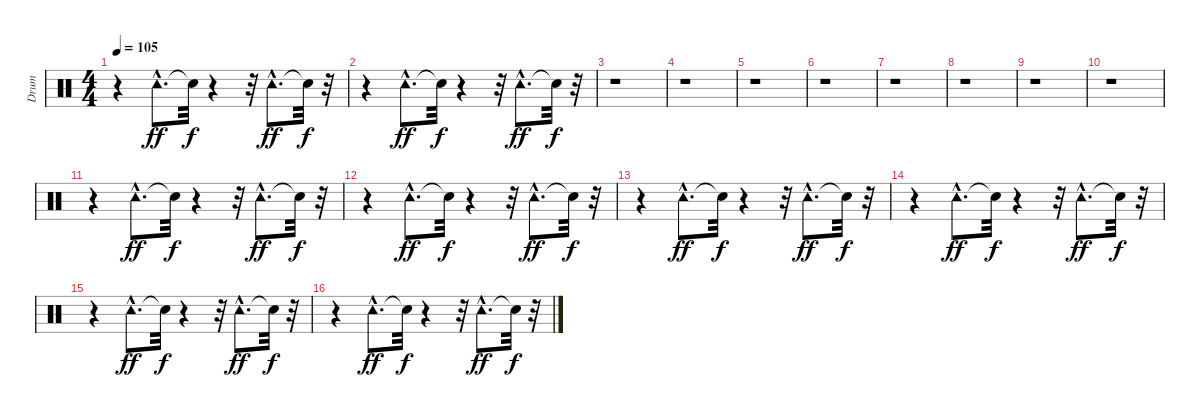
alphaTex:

\track ("Drum" "Drum") {instrument percussion}
\staff {score}
\articulation defaults
\ts (4 4)
\tempo 105
\clef neutral
\ks c
r.4{dy ff} "Tambourine (hit)"{hac}.8{d} "Snare (hit)"{t}.32{dy f} r.4 r.32 "Tambourine (hit)"{hac}.8{d dy ff} "Snare (hit)"{t}.32{dy f} r.32 |
r.4 "Tambourine (hit)"{hac}.8{d dy ff} "Snare (hit)"{t}.32{dy f} r.4 r.32 "Tambourine (hit)"{hac}.8{d dy ff} "Snare (hit)"{t}.32{dy f} r.32 |
r.1 |
r.1 |
r.1 |
r.1 |
r.1 |
r.1 |
r.1 |
r.1 |
r.4 "Tambourine (hit)"{hac}.8{d dy ff} "Snare (hit)"{t}.32{dy f} r.4 r.32 "Tambourine (hit)"{hac}.8{d dy ff} "Snare (hit)"{t}.32{dy f} r.32 |
r.4 "Tambourine (hit)"{hac}.8{d dy ff} "Snare (hit)"{t}.32{dy f} r.4 r.32 "Tambourine (hit)"{hac}.8{d dy ff} "Snare (hit)"{t}.32{dy f} r.32 |
r.4 "Tambourine (hit)"{hac}.8{d dy ff} "Snare (hit)"{t}.32{dy f} r.4 r.32 "Tambourine (hit)"{hac}.8{d dy ff} "Snare (hit)"{t}.32{dy f} r.32 |
r.4 "Tambourine (hit)"{hac}.8{d dy ff} "Snare (hit)"{t}.32{dy f} r.4 r.32 "Tambourine (hit)"{hac}.8{d dy ff} "Snare (hit)"{t}.32{dy f} r.32 |
r.4 "Tambourine (hit)"{hac}.8{d dy ff} "Snare (hit)"{t}.32{dy f} r.4 r.32 "Tambourine (hit)"{hac}.8{d dy ff} "Snare (hit)"{t}.32{dy f} r.32 |
r.4 "Tambourine (hit)"{hac}.8{d dy ff} "Snare (hit)"{t}.32{dy f} r.4 r.32 "Tambourine (hit)"{hac}.8{d dy ff} "Snare (hit)"{t}.32{dy f} r.32
